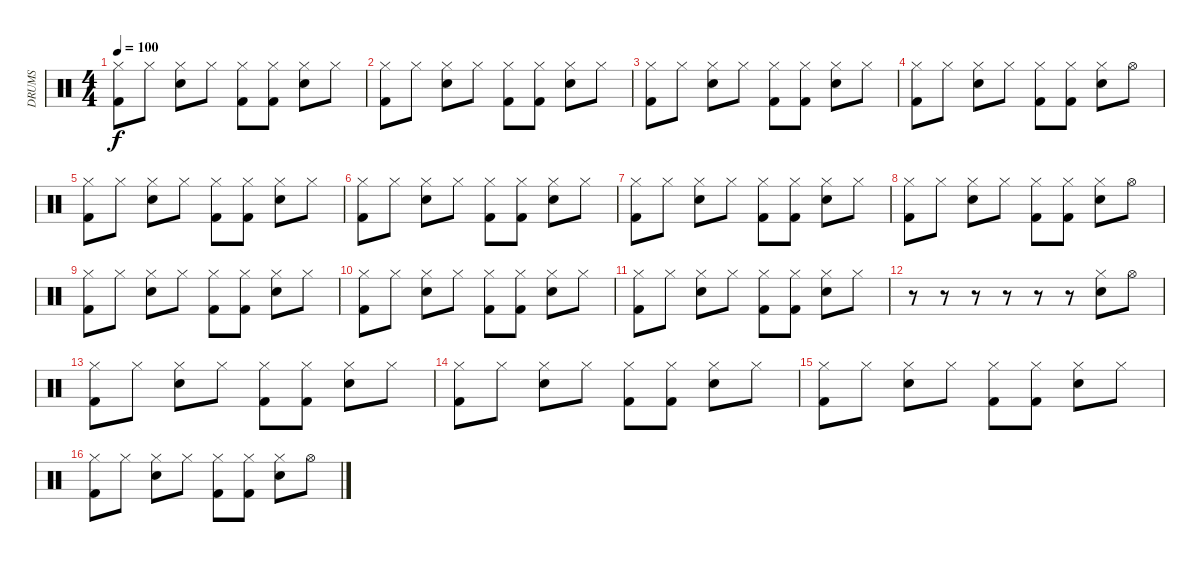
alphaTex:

\track ("DRUMS" "DRUMS") {instrument percussion}
\staff {score}
\articulation defaults
\ts (4 4)
\tempo 100
\clef neutral
\ks c
("Hi-Hat (closed)" "Kick (hit) 2").8{dy f} "Hi-Hat (closed)".8 ("Hi-Hat (closed)" "Snare (hit) 2").8 "Hi-Hat (closed)".8 ("Hi-Hat (closed)" "Kick (hit) 2").8 ("Hi-Hat (closed)" "Kick (hit) 2").8 ("Hi-Hat (closed)" "Snare (hit) 2").8 "Hi-Hat (closed)".8 |
("Hi-Hat (closed)" "Kick (hit) 2").8 "Hi-Hat (closed)".8 ("Hi-Hat (closed)" "Snare (hit) 2").8 "Hi-Hat (closed)".8 ("Hi-Hat (closed)" "Kick (hit) 2").8 ("Hi-Hat (closed)" "Kick (hit) 2").8 ("Hi-Hat (closed)" "Snare (hit) 2").8 "Hi-Hat (closed)".8 |
("Hi-Hat (closed)" "Kick (hit) 2").8 "Hi-Hat (closed)".8 ("Hi-Hat (closed)" "Snare (hit) 2").8 "Hi-Hat (closed)".8 ("Hi-Hat (closed)" "Kick (hit) 2").8 ("Hi-Hat (closed)" "Kick (hit) 2").8 ("Hi-Hat (closed)" "Snare (hit) 2").8 "Hi-Hat (closed)".8 |
("Hi-Hat (closed)" "Kick (hit) 2").8 "Hi-Hat (closed)".8 ("Hi-Hat (closed)" "Snare (hit) 2").8 "Hi-Hat (closed)".8 ("Hi-Hat (closed)" "Kick (hit) 2").8 ("Hi-Hat (closed)" "Kick (hit) 2").8 ("Hi-Hat (closed)" "Snare (hit) 2").8 "Hi-Hat (open)".8 |
("Hi-Hat (closed)" "Kick (hit) 2").8 "Hi-Hat (closed)".8 ("Hi-Hat (closed)" "Snare (hit) 2").8 "Hi-Hat (closed)".8 ("Hi-Hat (closed)" "Kick (hit) 2").8 ("Hi-Hat (closed)" "Kick (hit) 2").8 ("Hi-Hat (closed)" "Snare (hit) 2").8 "Hi-Hat (closed)".8 |
("Hi-Hat (closed)" "Kick (hit) 2").8 "Hi-Hat (closed)".8 ("Hi-Hat (closed)" "Snare (hit) 2").8 "Hi-Hat (closed)".8 ("Hi-Hat (closed)" "Kick (hit) 2").8 ("Hi-Hat (closed)" "Kick (hit) 2").8 ("Hi-Hat (closed)" "Snare (hit) 2").8 "Hi-Hat (closed)".8 |
("Hi-Hat (closed)" "Kick (hit) 2").8 "Hi-Hat (closed)".8 ("Hi-Hat (closed)" "Snare (hit) 2").8 "Hi-Hat (closed)".8 ("Hi-Hat (closed)" "Kick (hit) 2").8 ("Hi-Hat (closed)" "Kick (hit) 2").8 ("Hi-Hat (closed)" "Snare (hit) 2").8 "Hi-Hat (closed)".8 |
("Hi-Hat (closed)" "Kick (hit) 2").8 "Hi-Hat (closed)".8 ("Hi-Hat (closed)" "Snare (hit) 2").8 "Hi-Hat (closed)".8 ("Hi-Hat (closed)" "Kick (hit) 2").8 ("Hi-Hat (closed)" "Kick (hit) 2").8 ("Hi-Hat (closed)" "Snare (hit) 2").8 "Hi-Hat (open)".8 |
("Hi-Hat (closed)" "Kick (hit) 2").8 "Hi-Hat (closed)".8 ("Hi-Hat (closed)" "Snare (hit) 2").8 "Hi-Hat (closed)".8 ("Hi-Hat (closed)" "Kick (hit) 2").8 ("Hi-Hat (closed)" "Kick (hit) 2").8 ("Hi-Hat (closed)" "Snare (hit) 2").8 "Hi-Hat (closed)".8 |
("Hi-Hat (closed)" "Kick (hit) 2").8 "Hi-Hat (closed)".8 ("Hi-Hat (closed)" "Snare (hit) 2").8 "Hi-Hat (closed)".8 ("Hi-Hat (closed)" "Kick (hit) 2").8 ("Hi-Hat (closed)" "Kick (hit) 2").8 ("Hi-Hat (closed)" "Snare (hit) 2").8 "Hi-Hat (closed)".8 |
("Hi-Hat (closed)" "Kick (hit) 2").8 "Hi-Hat (closed)".8 ("Hi-Hat (closed)" "Snare (hit) 2").8 "Hi-Hat (closed)".8 ("Hi-Hat (closed)" "Kick (hit) 2").8 ("Hi-Hat (closed)" "Kick (hit) 2").8 ("Hi-Hat (closed)" "Snare (hit) 2").8 "Hi-Hat (closed)".8 |
r.8 r.8 r.8 r.8 r.8 r.8 ("Hi-Hat (closed)" "Snare (hit) 2").8 "Hi-Hat (open)".8 |
("Hi-Hat (closed)" "Kick (hit) 2").8 "Hi-Hat (closed)".8 ("Hi-Hat (closed)" "Snare (hit) 2").8 "Hi-Hat (closed)".8 ("Hi-Hat (closed)" "Kick (hit) 2").8 ("Hi-Hat (closed)" "Kick (hit) 2").8 ("Hi-Hat (closed)" "Snare (hit) 2").8 "Hi-Hat (closed)".8 |
("Hi-Hat (closed)" "Kick (hit) 2").8 "Hi-Hat (closed)".8 ("Hi-Hat (closed)" "Snare (hit) 2").8 "Hi-Hat (closed)".8 ("Hi-Hat (closed)" "Kick (hit) 2").8 ("Hi-Hat (closed)" "Kick (hit) 2").8 ("Hi-Hat (closed)" "Snare (hit) 2").8 "Hi-Hat (closed)".8 |
("Hi-Hat (closed)" "Kick (hit) 2").8 "Hi-Hat (closed)".8 ("Hi-Hat (closed)" "Snare (hit) 2").8 "Hi-Hat (closed)".8 ("Hi-Hat (closed)" "Kick (hit) 2").8 ("Hi-Hat (closed)" "Kick (hit) 2").8 ("Hi-Hat (closed)" "Snare (hit) 2").8 "Hi-Hat (closed)".8 |
("Hi-Hat (closed)" "Kick (hit) 2").8 "Hi-Hat (closed)".8 ("Hi-Hat (closed)" "Snare (hit) 2").8 "Hi-Hat (closed)".8 ("Hi-Hat (closed)" "Kick (hit) 2").8 ("Hi-Hat (closed)" "Kick (hit) 2").8 ("Hi-Hat (closed)" "Snare (hit) 2").8 "Hi-Hat (open)".8
